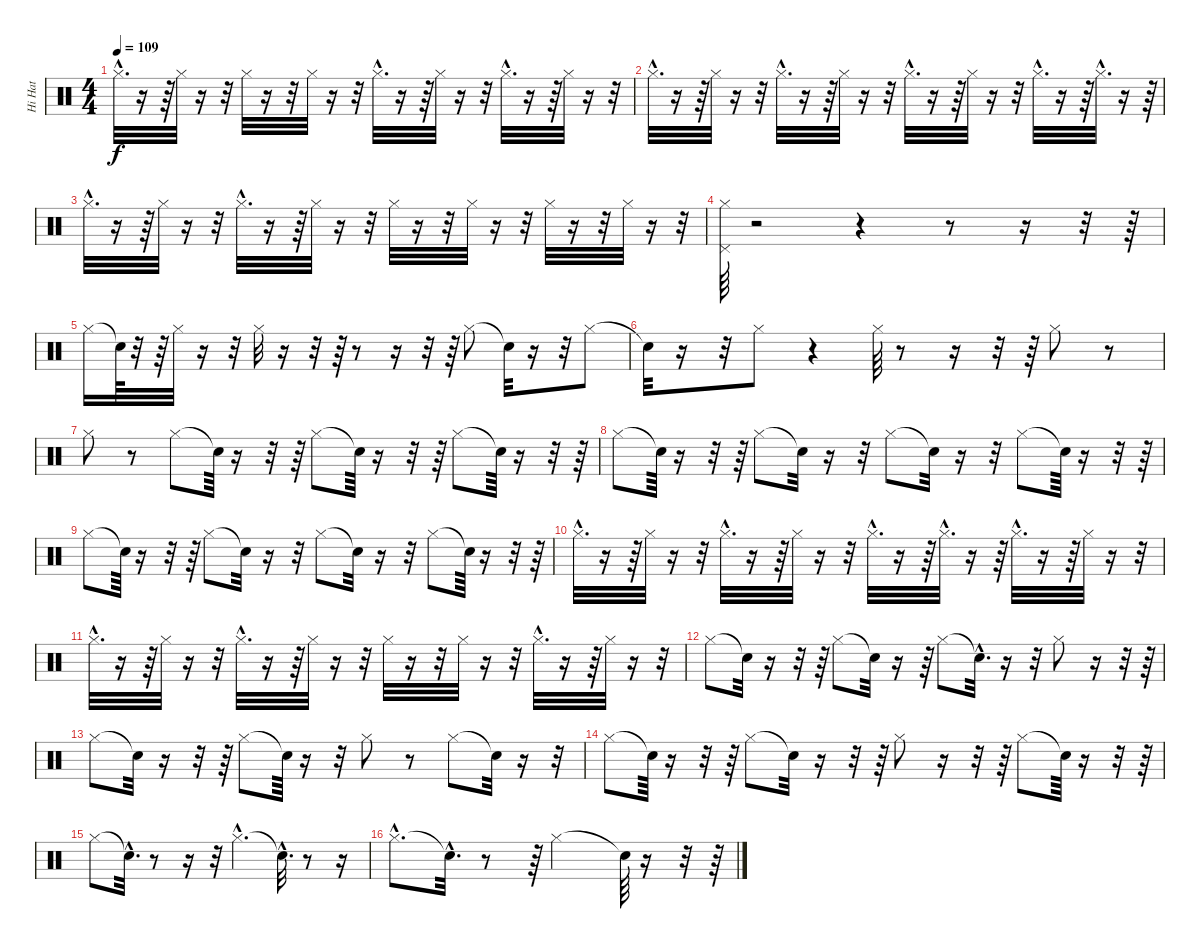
\track ("Hi Hat" "Hi Hat") {instrument percussion}
\staff {score}
\articulation defaults
\ts (4 4)
\tempo 109
\clef neutral
\ks c "Hi-Hat (closed)"{hac}.32{d dy f}
r.16 r.64 "Hi-Hat (closed)".32 r.16 r.32 "Hi-Hat (closed)".32 r.16 r.32 "Hi-Hat (closed)".32 r.16 r.32 "Hi-Hat (closed)"{hac}.32{d} r.16 r.64 "Hi-Hat (closed)".32 r.16 r.32 "Hi-Hat (closed)"{hac}.32{d} r.16 r.64 "Hi-Hat (closed)".32 r.16 r.32 |
"Hi-Hat (closed)"{hac}.32{d} r.16 r.64 "Hi-Hat (closed)".32 r.16 r.32 "Hi-Hat (closed)"{hac}.32{d} r.16 r.64 "Hi-Hat (closed)".32 r.16 r.32 "Hi-Hat (closed)"{hac}.32{d} r.16 r.64 "Hi-Hat (closed)".32 r.16 r.32 "Hi-Hat (closed)"{hac}.32{d} r.16 r.64 "Hi-Hat (closed)"{hac}.32{d} r.16 r.64 |
"Hi-Hat (closed)"{hac}.32{d} r.16 r.64 "Hi-Hat (closed)".32 r.16 r.32 "Hi-Hat (closed)"{hac}.32{d} r.16 r.64 "Hi-Hat (closed)".32 r.16 r.32 "Hi-Hat (closed)".32 r.16 r.32 "Hi-Hat (closed)".32 r.16 r.32 "Hi-Hat (closed)".32 r.16 r.32 "Hi-Hat (closed)".32 r.16 r.32 |
("Hi-Hat (closed)" "Pedal Hi-Hat (hit)").64 r.2 r.4 r.8 r.16 r.32 r.64 |
"Hi-Hat (closed)".16 "Snare (hit)"{t}.64 r.32 r.64 "Hi-Hat (closed)".32 r.16 r.32 "Hi-Hat (closed)".32 r.16 r.32 r.64 r.8 r.16 r.32 r.64 "Hi-Hat (closed)".8 "Snare (hit)"{t}.32 r.16 r.32 "Hi-Hat (closed)".8 |
"Snare (hit)"{t}.32 r.16 r.32 "Hi-Hat (closed)".8 r.4 "Hi-Hat (closed)".64 r.8 r.16 r.32 r.64 "Hi-Hat (closed)".8 r.8 |
"Hi-Hat (closed)".8 r.8 "Hi-Hat (closed)".8 "Snare (hit)"{t}.64 r.16 r.32 r.64 "Hi-Hat (closed)".8 "Snare (hit)"{t}.64 r.16 r.32 r.64 "Hi-Hat (closed)".8 "Snare (hit)"{t}.64 r.16 r.32 r.64 |
"Hi-Hat (closed)".8 "Snare (hit)"{t}.64 r.16 r.32 r.64 "Hi-Hat (closed)".8 "Snare (hit)"{t}.32 r.16 r.32 "Hi-Hat (closed)".8 "Snare (hit)"{t}.32 r.16 r.32 "Hi-Hat (closed)".8 "Snare (hit)"{t}.64 r.16 r.32 r.64 |
"Hi-Hat (closed)".8 "Snare (hit)"{t}.64 r.16 r.32 r.64 "Hi-Hat (closed)".8 "Snare (hit)"{t}.32 r.16 r.32 "Hi-Hat (closed)".8 "Snare (hit)"{t}.32 r.16 r.32 "Hi-Hat (closed)".8 "Snare (hit)"{t}.64 r.16 r.32 r.64 |
"Hi-Hat (closed)"{hac}.32{d} r.16 r.64 "Hi-Hat (closed)".32 r.16 r.32 "Hi-Hat (closed)"{hac}.32{d} r.16 r.64 "Hi-Hat (closed)".32 r.16 r.32 "Hi-Hat (closed)"{hac}.32{d} r.16 r.64 "Hi-Hat (closed)"{hac}.32{d} r.16 r.64 "Hi-Hat (closed)"{hac}.32{d} r.16 r.64 "Hi-Hat (closed)".32 r.16 r.32 |
"Hi-Hat (closed)"{hac}.32{d} r.16 r.64 "Hi-Hat (closed)".32 r.16 r.32 "Hi-Hat (closed)"{hac}.32{d} r.16 r.64 "Hi-Hat (closed)".32 r.16 r.32 "Hi-Hat (closed)".32 r.16 r.32 "Hi-Hat (closed)".32 r.16 r.32 "Hi-Hat (closed)"{hac}.32{d} r.16 r.64 "Hi-Hat (closed)".32 r.16 r.32 |
"Hi-Hat (closed)".8 "Snare (hit)"{t}.32 r.16 r.32 r.64 "Hi-Hat (closed)".8 "Snare (hit)"{t}.32 r.16 r.64 "Hi-Hat (closed)".8 "Snare (hit)"{hac t}.32{d} r.16 r.32 "Hi-Hat (closed)".8 r.16 r.32 r.64 |
"Hi-Hat (closed)".8 "Snare (hit)"{t}.32 r.16 r.32 r.64 "Hi-Hat (closed)".8 "Snare (hit)"{t}.64 r.16 r.32 "Hi-Hat (closed)".8 r.8 "Hi-Hat (closed)".8 "Snare (hit)"{t}.32 r.16 r.32 |
"Hi-Hat (closed)".8 "Snare (hit)"{t}.64 r.16 r.32 r.64 "Hi-Hat (closed)".8 "Snare (hit)"{t}.32 r.16 r.32 r.64 "Hi-Hat (closed)".8 r.16 r.32 r.64 "Hi-Hat (closed)".8 "Snare (hit)"{t}.64 r.16 r.32 r.64 |
"Hi-Hat (closed)".8 "Snare (hit)"{hac t}.32{d} r.8 r.16 r.32 "Hi-Hat (closed)"{hac}.4{d} "Snare (hit)"{hac t}.32{d} r.8 r.16 |
"Hi-Hat (closed)"{hac}.8{d} "Snare (hit)"{hac t}.32{d} r.8 r.64 "Hi-Hat (closed)".2 "Snare (hit)"{t}.64 r.16 r.32 r.64
